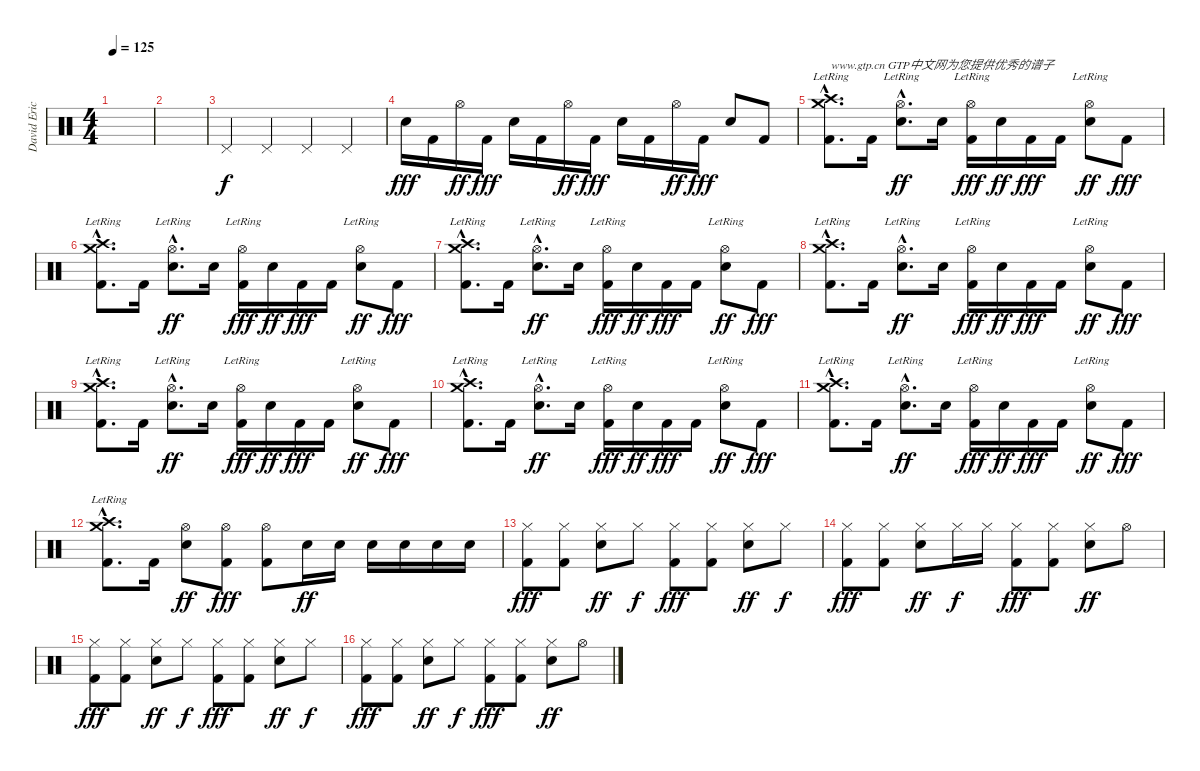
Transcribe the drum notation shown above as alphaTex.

\track ("David Eric Grohl" "David Eric") {instrument percussion}
\staff {score}
\articulation defaults
\ts (4 4)
\tempo 125
\clef neutral
\ks c
|
|
"Pedal Hi-Hat (hit)".4 "Pedal Hi-Hat (hit)".4 "Pedal Hi-Hat (hit)".4 "Pedal Hi-Hat (hit)".4 |
"Electric Snare (hit)".16{dy fff} "Kick (hit) 2".16 "Hi-Hat (open)".16{dy ff} "Kick (hit) 2".16{dy fff} "Electric Snare (hit)".16 "Kick (hit) 2".16 "Hi-Hat (open)".16{dy ff} "Kick (hit) 2".16{dy fff} "Electric Snare (hit)".16 "Kick (hit) 2".16 "Hi-Hat (open)".16{dy ff} "Kick (hit) 2".16{dy fff} "Electric Snare (hit)".8 "Kick (hit) 2".8 |
("Crash medium (hit)"{hac lr} "Crash high (hit)"{hac lr} "Kick (hit) 2"{hac}).8{d txt "www.gtp.cn GTP中文网为您提供优秀的谱子"} "Kick (hit) 2".16 ("Hi-Hat (open)"{hac lr} "Electric Snare (hit)"{hac}).8{d dy ff} "Electric Snare (hit)".16 ("Hi-Hat (open)"{lr} "Kick (hit) 2").16{dy fff} "Electric Snare (hit)".16{dy ff} "Kick (hit) 2".16{dy fff} "Kick (hit) 2".16 ("Hi-Hat (open)"{lr} "Electric Snare (hit)").8{dy ff} "Kick (hit) 2".8{dy fff} |
("Crash medium (hit)"{hac lr} "Crash high (hit)"{hac lr} "Kick (hit) 2"{hac}).8{d} "Kick (hit) 2".16 ("Hi-Hat (open)"{hac lr} "Electric Snare (hit)"{hac}).8{d dy ff} "Electric Snare (hit)".16 ("Hi-Hat (open)"{lr} "Kick (hit) 2").16{dy fff} "Electric Snare (hit)".16{dy ff} "Kick (hit) 2".16{dy fff} "Kick (hit) 2".16 ("Hi-Hat (open)"{lr} "Electric Snare (hit)").8{dy ff} "Kick (hit) 2".8{dy fff} |
("Crash medium (hit)"{hac lr} "Crash high (hit)"{hac lr} "Kick (hit) 2"{hac}).8{d} "Kick (hit) 2".16 ("Hi-Hat (open)"{hac lr} "Electric Snare (hit)"{hac}).8{d dy ff} "Electric Snare (hit)".16 ("Hi-Hat (open)"{lr} "Kick (hit) 2").16{dy fff} "Electric Snare (hit)".16{dy ff} "Kick (hit) 2".16{dy fff} "Kick (hit) 2".16 ("Hi-Hat (open)"{lr} "Electric Snare (hit)").8{dy ff} "Kick (hit) 2".8{dy fff} |
("Crash medium (hit)"{hac lr} "Crash high (hit)"{hac lr} "Kick (hit) 2"{hac}).8{d} "Kick (hit) 2".16 ("Hi-Hat (open)"{hac lr} "Electric Snare (hit)"{hac}).8{d dy ff} "Electric Snare (hit)".16 ("Hi-Hat (open)"{lr} "Kick (hit) 2").16{dy fff} "Electric Snare (hit)".16{dy ff} "Kick (hit) 2".16{dy fff} "Kick (hit) 2".16 ("Hi-Hat (open)"{lr} "Electric Snare (hit)").8{dy ff} "Kick (hit) 2".8{dy fff} |
("Crash medium (hit)"{hac lr} "Crash high (hit)"{hac lr} "Kick (hit) 2"{hac}).8{d} "Kick (hit) 2".16 ("Hi-Hat (open)"{hac lr} "Electric Snare (hit)"{hac}).8{d dy ff} "Electric Snare (hit)".16 ("Hi-Hat (open)"{lr} "Kick (hit) 2").16{dy fff} "Electric Snare (hit)".16{dy ff} "Kick (hit) 2".16{dy fff} "Kick (hit) 2".16 ("Hi-Hat (open)"{lr} "Electric Snare (hit)").8{dy ff} "Kick (hit) 2".8{dy fff} |
("Crash medium (hit)"{hac lr} "Crash high (hit)"{hac lr} "Kick (hit) 2"{hac}).8{d} "Kick (hit) 2".16 ("Hi-Hat (open)"{hac lr} "Electric Snare (hit)"{hac}).8{d dy ff} "Electric Snare (hit)".16 ("Hi-Hat (open)"{lr} "Kick (hit) 2").16{dy fff} "Electric Snare (hit)".16{dy ff} "Kick (hit) 2".16{dy fff} "Kick (hit) 2".16 ("Hi-Hat (open)"{lr} "Electric Snare (hit)").8{dy ff} "Kick (hit) 2".8{dy fff} |
("Crash medium (hit)"{hac lr} "Crash high (hit)"{hac lr} "Kick (hit) 2"{hac}).8{d} "Kick (hit) 2".16 ("Hi-Hat (open)"{hac lr} "Electric Snare (hit)"{hac}).8{d dy ff} "Electric Snare (hit)".16 ("Hi-Hat (open)"{lr} "Kick (hit) 2").16{dy fff} "Electric Snare (hit)".16{dy ff} "Kick (hit) 2".16{dy fff} "Kick (hit) 2".16 ("Hi-Hat (open)"{lr} "Electric Snare (hit)").8{dy ff} "Kick (hit) 2".8{dy fff} |
("Crash medium (hit)"{hac lr} "Crash high (hit)"{hac lr} "Kick (hit) 2"{hac}).8{d} "Kick (hit) 2".16 ("Hi-Hat (open)" "Electric Snare (hit)").8{dy ff} ("Hi-Hat (open)" "Kick (hit) 2").8{dy fff} ("Hi-Hat (open)" "Kick (hit) 2").8 "Electric Snare (hit)".16{dy ff} "Electric Snare (hit)".16 "Electric Snare (hit)".16 "Electric Snare (hit)".16 "Electric Snare (hit)".16 "Electric Snare (hit)".16 |
("Hi-Hat (closed)" "Kick (hit) 2").8{dy fff} ("Hi-Hat (closed)" "Kick (hit) 2").8 ("Hi-Hat (closed)" "Electric Snare (hit)").8{dy ff} "Hi-Hat (closed)".8{dy f} ("Hi-Hat (closed)" "Kick (hit) 2").8{dy fff} ("Hi-Hat (closed)" "Kick (hit) 2").8 ("Hi-Hat (closed)" "Electric Snare (hit)").8{dy ff} "Hi-Hat (closed)".8{dy f} |
("Hi-Hat (closed)" "Kick (hit) 2").8{dy fff} ("Hi-Hat (closed)" "Kick (hit) 2").8 ("Hi-Hat (closed)" "Electric Snare (hit)").8{dy ff} "Hi-Hat (closed)".16{dy f} "Hi-Hat (closed)".16 ("Hi-Hat (closed)" "Kick (hit) 2").8{dy fff} ("Hi-Hat (closed)" "Kick (hit) 2").8 ("Hi-Hat (closed)" "Electric Snare (hit)").8{dy ff} "Hi-Hat (open)".8 |
("Hi-Hat (closed)" "Kick (hit) 2").8{dy fff} ("Hi-Hat (closed)" "Kick (hit) 2").8 ("Hi-Hat (closed)" "Electric Snare (hit)").8{dy ff} "Hi-Hat (closed)".8{dy f} ("Hi-Hat (closed)" "Kick (hit) 2").8{dy fff} ("Hi-Hat (closed)" "Kick (hit) 2").8 ("Hi-Hat (closed)" "Electric Snare (hit)").8{dy ff} "Hi-Hat (closed)".8{dy f} |
("Hi-Hat (closed)" "Kick (hit) 2").8{dy fff} ("Hi-Hat (closed)" "Kick (hit) 2").8 ("Hi-Hat (closed)" "Electric Snare (hit)").8{dy ff} "Hi-Hat (closed)".8{dy f} ("Hi-Hat (closed)" "Kick (hit) 2").8{dy fff} ("Hi-Hat (closed)" "Kick (hit) 2").8 ("Hi-Hat (closed)" "Electric Snare (hit)").8{dy ff} "Hi-Hat (open)".8
